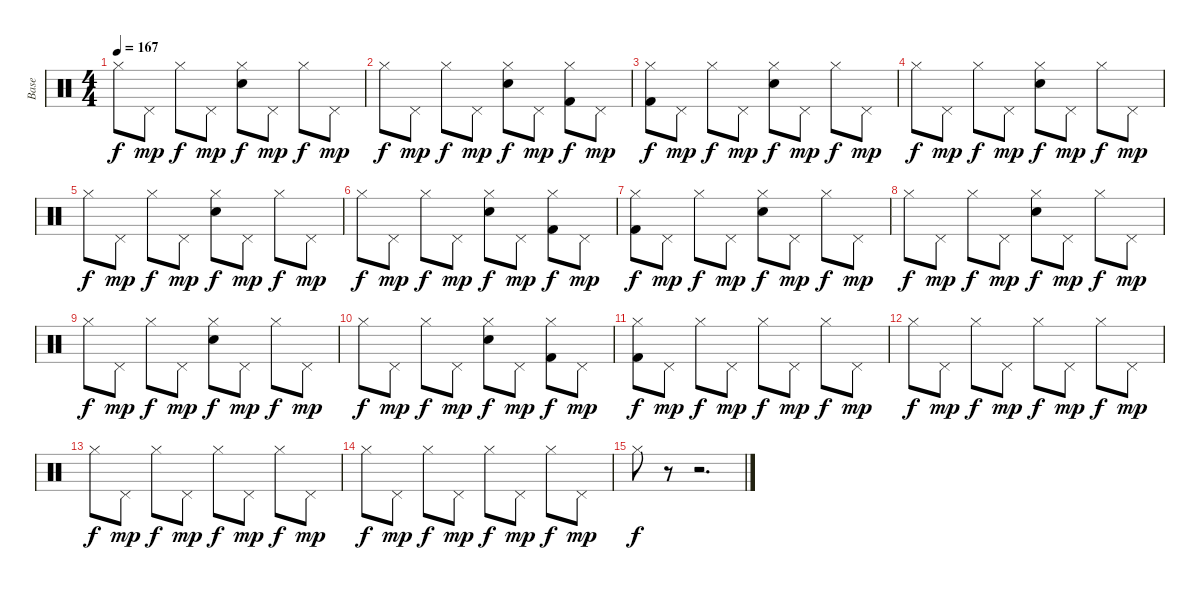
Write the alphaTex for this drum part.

\track ("Base" "Base") {instrument percussion}
\staff {score}
\articulation defaults
\ts (4 4)
\tempo 167
\clef neutral
\ks c "Hi-Hat (closed)".8{dy f} "Pedal Hi-Hat (hit)".8{dy mp} "Hi-Hat (closed)".8{dy f} "Pedal Hi-Hat (hit)".8{dy mp}
("Electric Snare (hit)" "Hi-Hat (closed)").8{dy f} "Pedal Hi-Hat (hit)".8{dy mp} "Hi-Hat (closed)".8{dy f} "Pedal Hi-Hat (hit)".8{dy mp} |
"Hi-Hat (closed)".8{dy f} "Pedal Hi-Hat (hit)".8{dy mp} "Hi-Hat (closed)".8{dy f} "Pedal Hi-Hat (hit)".8{dy mp} ("Electric Snare (hit)" "Hi-Hat (closed)").8{dy f} "Pedal Hi-Hat (hit)".8{dy mp} ("Hi-Hat (closed)" "Kick (hit) 2").8{dy f} "Pedal Hi-Hat (hit)".8{dy mp} |
("Hi-Hat (closed)" "Kick (hit) 2").8{dy f} "Pedal Hi-Hat (hit)".8{dy mp} "Hi-Hat (closed)".8{dy f} "Pedal Hi-Hat (hit)".8{dy mp} ("Electric Snare (hit)" "Hi-Hat (closed)").8{dy f} "Pedal Hi-Hat (hit)".8{dy mp} "Hi-Hat (closed)".8{dy f} "Pedal Hi-Hat (hit)".8{dy mp} |
"Hi-Hat (closed)".8{dy f} "Pedal Hi-Hat (hit)".8{dy mp} "Hi-Hat (closed)".8{dy f} "Pedal Hi-Hat (hit)".8{dy mp} ("Electric Snare (hit)" "Hi-Hat (closed)").8{dy f} "Pedal Hi-Hat (hit)".8{dy mp} "Hi-Hat (closed)".8{dy f} "Pedal Hi-Hat (hit)".8{dy mp} |
"Hi-Hat (closed)".8{dy f} "Pedal Hi-Hat (hit)".8{dy mp} "Hi-Hat (closed)".8{dy f} "Pedal Hi-Hat (hit)".8{dy mp} ("Electric Snare (hit)" "Hi-Hat (closed)").8{dy f} "Pedal Hi-Hat (hit)".8{dy mp} "Hi-Hat (closed)".8{dy f} "Pedal Hi-Hat (hit)".8{dy mp} |
"Hi-Hat (closed)".8{dy f} "Pedal Hi-Hat (hit)".8{dy mp} "Hi-Hat (closed)".8{dy f} "Pedal Hi-Hat (hit)".8{dy mp} ("Electric Snare (hit)" "Hi-Hat (closed)").8{dy f} "Pedal Hi-Hat (hit)".8{dy mp} ("Hi-Hat (closed)" "Kick (hit) 2").8{dy f} "Pedal Hi-Hat (hit)".8{dy mp} |
("Hi-Hat (closed)" "Kick (hit) 2").8{dy f} "Pedal Hi-Hat (hit)".8{dy mp} "Hi-Hat (closed)".8{dy f} "Pedal Hi-Hat (hit)".8{dy mp} ("Electric Snare (hit)" "Hi-Hat (closed)").8{dy f} "Pedal Hi-Hat (hit)".8{dy mp} "Hi-Hat (closed)".8{dy f} "Pedal Hi-Hat (hit)".8{dy mp} |
"Hi-Hat (closed)".8{dy f} "Pedal Hi-Hat (hit)".8{dy mp} "Hi-Hat (closed)".8{dy f} "Pedal Hi-Hat (hit)".8{dy mp} ("Electric Snare (hit)" "Hi-Hat (closed)").8{dy f} "Pedal Hi-Hat (hit)".8{dy mp} "Hi-Hat (closed)".8{dy f} "Pedal Hi-Hat (hit)".8{dy mp} |
"Hi-Hat (closed)".8{dy f} "Pedal Hi-Hat (hit)".8{dy mp} "Hi-Hat (closed)".8{dy f} "Pedal Hi-Hat (hit)".8{dy mp} ("Electric Snare (hit)" "Hi-Hat (closed)").8{dy f} "Pedal Hi-Hat (hit)".8{dy mp} "Hi-Hat (closed)".8{dy f} "Pedal Hi-Hat (hit)".8{dy mp} |
"Hi-Hat (closed)".8{dy f} "Pedal Hi-Hat (hit)".8{dy mp} "Hi-Hat (closed)".8{dy f} "Pedal Hi-Hat (hit)".8{dy mp} ("Electric Snare (hit)" "Hi-Hat (closed)").8{dy f} "Pedal Hi-Hat (hit)".8{dy mp} ("Hi-Hat (closed)" "Kick (hit) 2").8{dy f} "Pedal Hi-Hat (hit)".8{dy mp} |
("Hi-Hat (closed)" "Kick (hit) 2").8{dy f} "Pedal Hi-Hat (hit)".8{dy mp} "Hi-Hat (closed)".8{dy f} "Pedal Hi-Hat (hit)".8{dy mp} "Hi-Hat (closed)".8{dy f} "Pedal Hi-Hat (hit)".8{dy mp} "Hi-Hat (closed)".8{dy f} "Pedal Hi-Hat (hit)".8{dy mp} |
"Hi-Hat (closed)".8{dy f} "Pedal Hi-Hat (hit)".8{dy mp} "Hi-Hat (closed)".8{dy f} "Pedal Hi-Hat (hit)".8{dy mp} "Hi-Hat (closed)".8{dy f} "Pedal Hi-Hat (hit)".8{dy mp} "Hi-Hat (closed)".8{dy f} "Pedal Hi-Hat (hit)".8{dy mp} |
"Hi-Hat (closed)".8{dy f} "Pedal Hi-Hat (hit)".8{dy mp} "Hi-Hat (closed)".8{dy f} "Pedal Hi-Hat (hit)".8{dy mp} "Hi-Hat (closed)".8{dy f} "Pedal Hi-Hat (hit)".8{dy mp} "Hi-Hat (closed)".8{dy f} "Pedal Hi-Hat (hit)".8{dy mp} |
"Hi-Hat (closed)".8{dy f} "Pedal Hi-Hat (hit)".8{dy mp} "Hi-Hat (closed)".8{dy f} "Pedal Hi-Hat (hit)".8{dy mp} "Hi-Hat (closed)".8{dy f} "Pedal Hi-Hat (hit)".8{dy mp} "Hi-Hat (closed)".8{dy f} "Pedal Hi-Hat (hit)".8{dy mp} |
"Hi-Hat (closed)".8{dy f} r.8 r.2{d}
